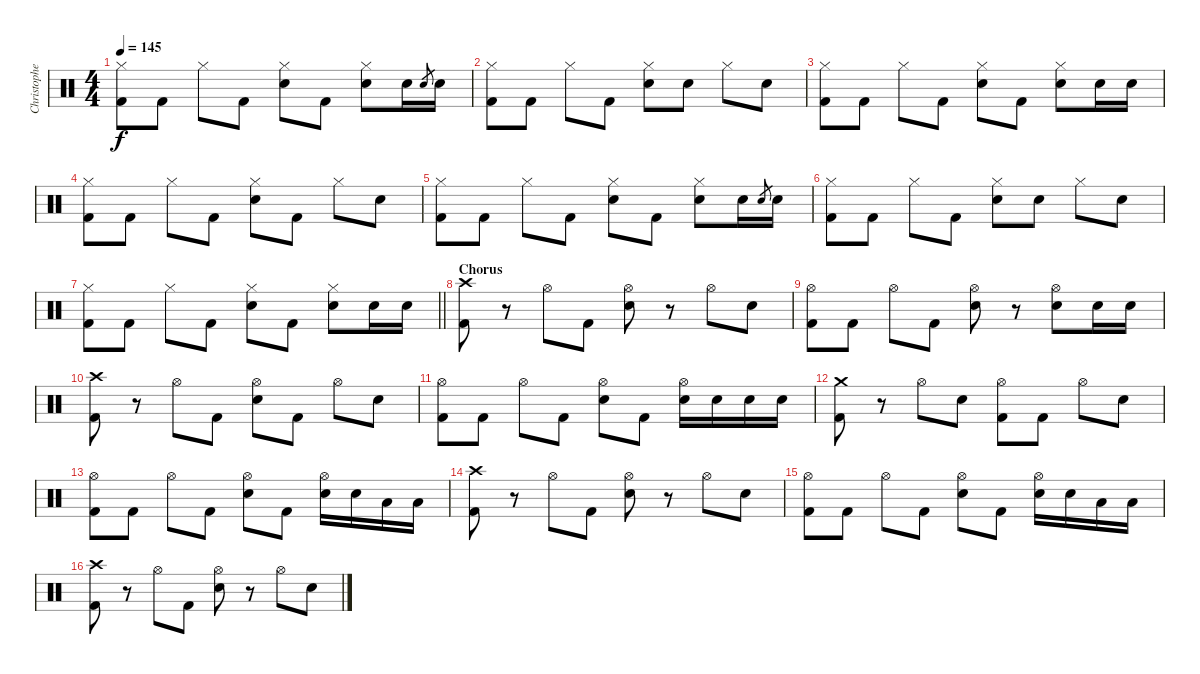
\track ("Christopher - Drums" "Christophe") {instrument percussion}
\staff {score}
\articulation defaults
\ts (4 4)
\tempo 145
\clef neutral
\ks c
("Hi-Hat (closed)" "Kick (hit) 2").8{dy f} "Kick (hit) 2".8 "Hi-Hat (closed)".8 "Kick (hit) 2".8 ("Hi-Hat (closed)" "Electric Snare (hit)").8 "Kick (hit) 2".8 ("Hi-Hat (closed)" "Electric Snare (hit)").8 "Electric Snare (hit)".16 "Electric Snare (hit)".8{gr} "Electric Snare (hit)".16 |
("Hi-Hat (closed)" "Kick (hit) 2").8 "Kick (hit) 2".8 "Hi-Hat (closed)".8 "Kick (hit) 2".8 ("Hi-Hat (closed)" "Electric Snare (hit)").8 "Electric Snare (hit)".8 "Hi-Hat (closed)".8 "Electric Snare (hit)".8 |
("Hi-Hat (closed)" "Kick (hit) 2").8 "Kick (hit) 2".8 "Hi-Hat (closed)".8 "Kick (hit) 2".8 ("Hi-Hat (closed)" "Electric Snare (hit)").8 "Kick (hit) 2".8 ("Hi-Hat (closed)" "Electric Snare (hit)").8 "Electric Snare (hit)".16 "Electric Snare (hit)".16 |
("Hi-Hat (closed)" "Kick (hit) 2").8 "Kick (hit) 2".8 "Hi-Hat (closed)".8 "Kick (hit) 2".8 ("Hi-Hat (closed)" "Electric Snare (hit)").8 "Kick (hit) 2".8 "Hi-Hat (closed)".8 "Electric Snare (hit)".8 |
("Hi-Hat (closed)" "Kick (hit) 2").8 "Kick (hit) 2".8 "Hi-Hat (closed)".8 "Kick (hit) 2".8 ("Hi-Hat (closed)" "Electric Snare (hit)").8 "Kick (hit) 2".8 ("Hi-Hat (closed)" "Electric Snare (hit)").8 "Electric Snare (hit)".16 "Electric Snare (hit)".8{gr} "Electric Snare (hit)".16 |
("Hi-Hat (closed)" "Kick (hit) 2").8 "Kick (hit) 2".8 "Hi-Hat (closed)".8 "Kick (hit) 2".8 ("Hi-Hat (closed)" "Electric Snare (hit)").8 "Electric Snare (hit)".8 "Hi-Hat (closed)".8 "Electric Snare (hit)".8 |
\barLineRight lightlight
("Hi-Hat (closed)" "Kick (hit) 2").8 "Kick (hit) 2".8 "Hi-Hat (closed)".8 "Kick (hit) 2".8 ("Hi-Hat (closed)" "Electric Snare (hit)").8 "Kick (hit) 2".8 ("Hi-Hat (closed)" "Electric Snare (hit)").8 "Electric Snare (hit)".16 "Electric Snare (hit)".16 |
\section ("" "Chorus")
("Crash high (hit)" "Kick (hit) 2").8 r.8 "Hi-Hat (open)".8 "Kick (hit) 2".8 ("Hi-Hat (open)" "Electric Snare (hit)").8 r.8 "Hi-Hat (open)".8 "Electric Snare (hit)".8 |
("Hi-Hat (open)" "Kick (hit) 2").8 "Kick (hit) 2".8 "Hi-Hat (open)".8 "Kick (hit) 2".8 ("Hi-Hat (open)" "Electric Snare (hit)").8 r.8 ("Hi-Hat (open)" "Electric Snare (hit)").8 "Electric Snare (hit)".16 "Electric Snare (hit)".16 |
("Crash high (hit)" "Kick (hit) 2").8 r.8 "Hi-Hat (open)".8 "Kick (hit) 2".8 ("Hi-Hat (open)" "Electric Snare (hit)").8 "Kick (hit) 2".8 "Hi-Hat (open)".8 "Electric Snare (hit)".8 |
("Hi-Hat (open)" "Kick (hit) 2").8 "Kick (hit) 2".8 "Hi-Hat (open)".8 "Kick (hit) 2".8 ("Hi-Hat (open)" "Electric Snare (hit)").8 "Kick (hit) 2".8 ("Hi-Hat (open)" "Electric Snare (hit)").16 "Electric Snare (hit)".16 "Electric Snare (hit)".16 "Electric Snare (hit)".16 |
("Crash medium (hit)" "Kick (hit) 2").8 r.8 "Hi-Hat (open)".8 "Electric Snare (hit)".8 ("Hi-Hat (open)" "Kick (hit) 2").8 "Kick (hit) 2".8 "Hi-Hat (open)".8 "Electric Snare (hit)".8 |
("Hi-Hat (open)" "Kick (hit) 2").8 "Kick (hit) 2".8 "Hi-Hat (open)".8 "Kick (hit) 2".8 ("Hi-Hat (open)" "Electric Snare (hit)").8 "Kick (hit) 2".8 ("Hi-Hat (open)" "Electric Snare (hit)").16 "Electric Snare (hit)".16 "Low Tom (hit)".16 "Low Tom (hit)".16 |
("Crash high (hit)" "Kick (hit) 2").8 r.8 "Hi-Hat (open)".8 "Kick (hit) 2".8 ("Hi-Hat (open)" "Electric Snare (hit)").8 r.8 "Hi-Hat (open)".8 "Electric Snare (hit)".8 |
("Hi-Hat (open)" "Kick (hit) 2").8 "Kick (hit) 2".8 "Hi-Hat (open)".8 "Kick (hit) 2".8 ("Hi-Hat (open)" "Electric Snare (hit)").8 "Kick (hit) 2".8 ("Hi-Hat (open)" "Electric Snare (hit)").16 "Electric Snare (hit)".16 "Low Tom (hit)".16 "Low Tom (hit)".16 |
("Crash high (hit)" "Kick (hit) 2").8 r.8 "Hi-Hat (open)".8 "Kick (hit) 2".8 ("Hi-Hat (open)" "Electric Snare (hit)").8 r.8 "Hi-Hat (open)".8 "Electric Snare (hit)".8
